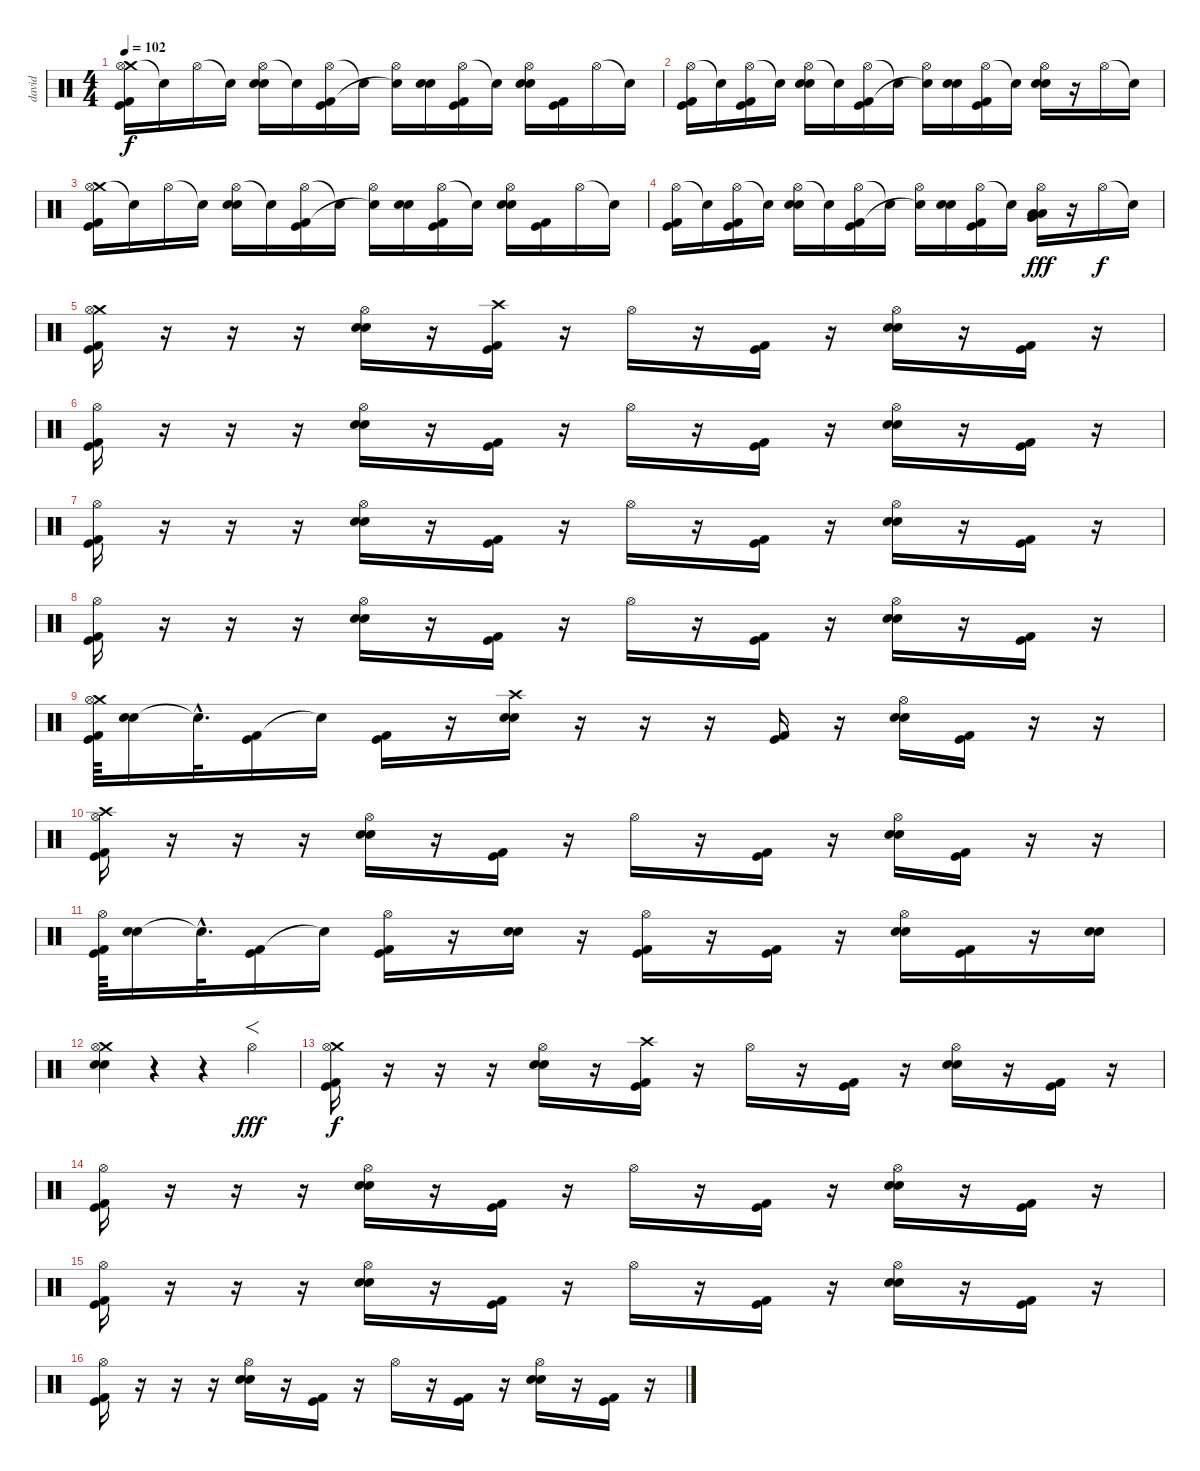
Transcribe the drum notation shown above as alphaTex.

\track ("david" "david") {instrument percussion}
\staff {score}
\articulation defaults
\ts (4 4)
\tempo 102
\clef neutral
\ks c
("Crash medium (hit)" "Hi-Hat (open)" "Kick (hit) 2" "Kick (hit)").16{dy f} "Snare (hit)"{t}.16 "Hi-Hat (open)".16 "Snare (hit)"{t}.16 ("Hi-Hat (open)" "Electric Snare (hit)" "Snare (hit) 2").16 "Snare (hit)"{t}.16 ("Hi-Hat (open)" "Kick (hit) 2" "Kick (hit)").16 "Snare (hit)"{t}.16 ("Hi-Hat (open)" "Snare (hit)"{t}).16 ("Electric Snare (hit)" "Snare (hit) 2").16 ("Hi-Hat (open)" "Kick (hit) 2" "Kick (hit)").16 "Snare (hit)"{t}.16 ("Hi-Hat (open)" "Electric Snare (hit)" "Snare (hit) 2").16 ("Kick (hit) 2" "Kick (hit)").16 "Hi-Hat (open)".16 "Snare (hit)"{t}.16 |
("Hi-Hat (open)" "Kick (hit) 2" "Kick (hit)").16 "Snare (hit)"{t}.16 ("Hi-Hat (open)" "Kick (hit) 2" "Kick (hit)").16 "Snare (hit)"{t}.16 ("Hi-Hat (open)" "Electric Snare (hit)" "Snare (hit) 2").16 "Snare (hit)"{t}.16 ("Hi-Hat (open)" "Kick (hit) 2" "Kick (hit)").16 "Snare (hit)"{t}.16 ("Hi-Hat (open)" "Snare (hit)"{t}).16 ("Electric Snare (hit)" "Snare (hit) 2").16 ("Hi-Hat (open)" "Kick (hit) 2" "Kick (hit)").16 "Snare (hit)"{t}.16 ("Hi-Hat (open)" "Electric Snare (hit)" "Snare (hit) 2").16 r.16 "Hi-Hat (open)".16 "Snare (hit)"{t}.16 |
("Crash medium (hit)" "Hi-Hat (open)" "Kick (hit) 2" "Kick (hit)").16 "Snare (hit)"{t}.16 "Hi-Hat (open)".16 "Snare (hit)"{t}.16 ("Hi-Hat (open)" "Electric Snare (hit)" "Snare (hit) 2").16 "Snare (hit)"{t}.16 ("Hi-Hat (open)" "Kick (hit) 2" "Kick (hit)").16 "Snare (hit)"{t}.16 ("Hi-Hat (open)" "Snare (hit)"{t}).16 ("Electric Snare (hit)" "Snare (hit) 2").16 ("Hi-Hat (open)" "Kick (hit) 2" "Kick (hit)").16 "Snare (hit)"{t}.16 ("Hi-Hat (open)" "Electric Snare (hit)" "Snare (hit) 2").16 ("Kick (hit) 2" "Kick (hit)").16 "Hi-Hat (open)".16 "Snare (hit)"{t}.16 |
("Hi-Hat (open)" "Kick (hit) 2" "Kick (hit)").16 "Snare (hit)"{t}.16 ("Hi-Hat (open)" "Kick (hit) 2" "Kick (hit)").16 "Snare (hit)"{t}.16 ("Hi-Hat (open)" "Electric Snare (hit)" "Snare (hit) 2").16 "Snare (hit)"{t}.16 ("Hi-Hat (open)" "Kick (hit) 2" "Kick (hit)").16 "Snare (hit)"{t}.16 ("Hi-Hat (open)" "Snare (hit)"{t}).16 ("Electric Snare (hit)" "Snare (hit) 2").16 ("Hi-Hat (open)" "Kick (hit) 2" "Kick (hit)").16 "Snare (hit)"{t}.16 ("Hi-Hat (open)" "Low Floor Tom (hit)" "Low Tom (hit)" "Very Low Tom (hit)").16{dy fff} r.16 "Hi-Hat (open)".16{dy f} "Snare (hit)"{t}.16 |
("Crash medium (hit)" "Hi-Hat (open)" "Kick (hit) 2" "Kick (hit)").16 r.16 r.16 r.16 ("Hi-Hat (open)" "Electric Snare (hit)" "Snare (hit) 2").16 r.16 ("Crash high (hit)" "Kick (hit) 2" "Kick (hit)").16 r.16 "Hi-Hat (open)".16 r.16 ("Kick (hit) 2" "Kick (hit)").16 r.16 ("Hi-Hat (open)" "Electric Snare (hit)" "Snare (hit) 2").16 r.16 ("Kick (hit) 2" "Kick (hit)").16 r.16 |
("Hi-Hat (open)" "Kick (hit) 2" "Kick (hit)").16 r.16 r.16 r.16 ("Hi-Hat (open)" "Electric Snare (hit)" "Snare (hit) 2").16 r.16 ("Kick (hit) 2" "Kick (hit)").16 r.16 "Hi-Hat (open)".16 r.16 ("Kick (hit) 2" "Kick (hit)").16 r.16 ("Hi-Hat (open)" "Electric Snare (hit)" "Snare (hit) 2").16 r.16 ("Kick (hit) 2" "Kick (hit)").16 r.16 |
("Hi-Hat (open)" "Kick (hit) 2" "Kick (hit)").16 r.16 r.16 r.16 ("Hi-Hat (open)" "Electric Snare (hit)" "Snare (hit) 2").16 r.16 ("Kick (hit) 2" "Kick (hit)").16 r.16 "Hi-Hat (open)".16 r.16 ("Kick (hit) 2" "Kick (hit)").16 r.16 ("Hi-Hat (open)" "Electric Snare (hit)" "Snare (hit) 2").16 r.16 ("Kick (hit) 2" "Kick (hit)").16 r.16 |
("Hi-Hat (open)" "Kick (hit) 2" "Kick (hit)").16 r.16 r.16 r.16 ("Hi-Hat (open)" "Electric Snare (hit)" "Snare (hit) 2").16 r.16 ("Kick (hit) 2" "Kick (hit)").16 r.16 "Hi-Hat (open)".16 r.16 ("Kick (hit) 2" "Kick (hit)").16 r.16 ("Hi-Hat (open)" "Electric Snare (hit)" "Snare (hit) 2").16 r.16 ("Kick (hit) 2" "Kick (hit)").16 r.16 |
("Crash medium (hit)" "Hi-Hat (open)" "Kick (hit) 2" "Kick (hit)").64 ("Electric Snare (hit)" "Snare (hit) 2").16 "Snare (hit)"{hac t}.32{d} ("Kick (hit) 2" "Kick (hit)").16 "Snare (hit)"{t}.16 ("Kick (hit) 2" "Kick (hit)").16 r.16 ("Crash high (hit)" "Electric Snare (hit)" "Snare (hit) 2").16 r.16 r.16 r.16 ("Kick (hit) 2" "Kick (hit)").16 r.16 ("Hi-Hat (open)" "Electric Snare (hit)" "Snare (hit) 2").16 ("Kick (hit) 2" "Kick (hit)").16 r.16 r.16 |
("Hi-Hat (open)" "Crash high (hit)" "Kick (hit) 2" "Kick (hit)").16 r.16 r.16 r.16 ("Hi-Hat (open)" "Electric Snare (hit)" "Snare (hit) 2").16 r.16 ("Kick (hit) 2" "Kick (hit)").16 r.16 "Hi-Hat (open)".16 r.16 ("Kick (hit) 2" "Kick (hit)").16 r.16 ("Hi-Hat (open)" "Electric Snare (hit)" "Snare (hit) 2").16 ("Kick (hit) 2" "Kick (hit)").16 r.16 r.16 |
("Hi-Hat (open)" "Kick (hit) 2" "Kick (hit)").64 ("Electric Snare (hit)" "Snare (hit) 2").16 "Snare (hit)"{hac t}.32{d} ("Kick (hit) 2" "Kick (hit)").16 "Snare (hit)"{t}.16 ("Hi-Hat (open)" "Kick (hit) 2" "Kick (hit)").16 r.16 ("Electric Snare (hit)" "Snare (hit) 2").16 r.16 ("Hi-Hat (open)" "Kick (hit) 2" "Kick (hit)").16 r.16 ("Kick (hit) 2" "Kick (hit)").16 r.16 ("Hi-Hat (open)" "Electric Snare (hit)" "Snare (hit) 2").16 ("Kick (hit) 2" "Kick (hit)").16 r.16 ("Electric Snare (hit)" "Snare (hit) 2").16 |
("Crash medium (hit)" "Hi-Hat (open)" "Electric Snare (hit)" "Snare (hit) 2").4 r.4 r.4 "Hi-Hat (open)".4{f dy fff} |
("Crash medium (hit)" "Hi-Hat (open)" "Kick (hit) 2" "Kick (hit)").16{dy f} r.16 r.16 r.16 ("Hi-Hat (open)" "Electric Snare (hit)" "Snare (hit) 2").16 r.16 ("Crash high (hit)" "Kick (hit) 2" "Kick (hit)").16 r.16 "Hi-Hat (open)".16 r.16 ("Kick (hit) 2" "Kick (hit)").16 r.16 ("Hi-Hat (open)" "Electric Snare (hit)" "Snare (hit) 2").16 r.16 ("Kick (hit) 2" "Kick (hit)").16 r.16 |
("Hi-Hat (open)" "Kick (hit) 2" "Kick (hit)").16 r.16 r.16 r.16 ("Hi-Hat (open)" "Electric Snare (hit)" "Snare (hit) 2").16 r.16 ("Kick (hit) 2" "Kick (hit)").16 r.16 "Hi-Hat (open)".16 r.16 ("Kick (hit) 2" "Kick (hit)").16 r.16 ("Hi-Hat (open)" "Electric Snare (hit)" "Snare (hit) 2").16 r.16 ("Kick (hit) 2" "Kick (hit)").16 r.16 |
("Hi-Hat (open)" "Kick (hit) 2" "Kick (hit)").16 r.16 r.16 r.16 ("Hi-Hat (open)" "Electric Snare (hit)" "Snare (hit) 2").16 r.16 ("Kick (hit) 2" "Kick (hit)").16 r.16 "Hi-Hat (open)".16 r.16 ("Kick (hit) 2" "Kick (hit)").16 r.16 ("Hi-Hat (open)" "Electric Snare (hit)" "Snare (hit) 2").16 r.16 ("Kick (hit) 2" "Kick (hit)").16 r.16 |
("Hi-Hat (open)" "Kick (hit) 2" "Kick (hit)").16 r.16 r.16 r.16 ("Hi-Hat (open)" "Electric Snare (hit)" "Snare (hit) 2").16 r.16 ("Kick (hit) 2" "Kick (hit)").16 r.16 "Hi-Hat (open)".16 r.16 ("Kick (hit) 2" "Kick (hit)").16 r.16 ("Hi-Hat (open)" "Electric Snare (hit)" "Snare (hit) 2").16 r.16 ("Kick (hit) 2" "Kick (hit)").16 r.16
